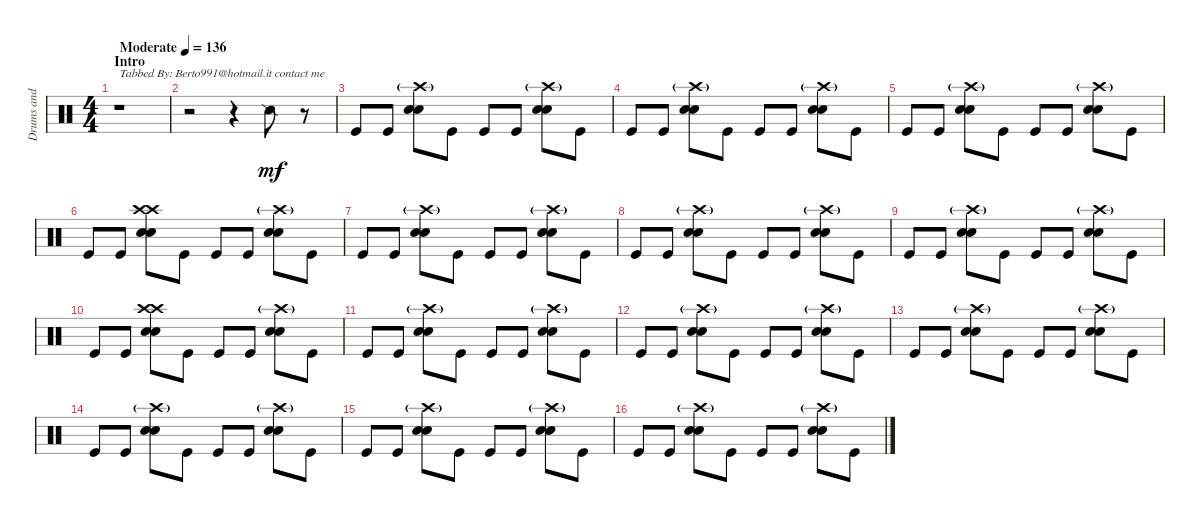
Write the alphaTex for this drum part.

\track ("Drums and Percussions" "Drums and ") {instrument percussion}
\staff {score}
\articulation defaults
\ts (4 4)
\section ("" "Intro")
\tempo (136 "Moderate")
\clef neutral
\ks c
r.1{txt "Tabbed By: Berto991@hotmail.it contact me" dy mf} |
r.2 r.4 "Snare (side stick) 2".8 r.8 |
"Kick (hit)".8 "Kick (hit)".8 ("Crash high (hit)"{g} "Electric Snare (hit)" "Electric Snare (hit)").8 "Kick (hit)".8 "Kick (hit)".8 "Kick (hit)".8 ("Crash high (hit)"{g} "Electric Snare (hit)" "Electric Snare (hit)").8 "Kick (hit)".8 |
"Kick (hit)".8 "Kick (hit)".8 ("Crash high (hit)"{g} "Electric Snare (hit)" "Electric Snare (hit)").8 "Kick (hit)".8 "Kick (hit)".8 "Kick (hit)".8 ("Crash high (hit)"{g} "Electric Snare (hit)" "Electric Snare (hit)").8 "Kick (hit)".8 |
"Kick (hit)".8 "Kick (hit)".8 ("Crash high (hit)"{g} "Electric Snare (hit)" "Electric Snare (hit)").8 "Kick (hit)".8 "Kick (hit)".8 "Kick (hit)".8 ("Crash high (hit)"{g} "Electric Snare (hit)" "Electric Snare (hit)").8 "Kick (hit)".8 |
"Kick (hit)".8 "Kick (hit)".8 ("Crash high (hit)" "Crash high (hit)" "Electric Snare (hit)" "Electric Snare (hit)").8 "Kick (hit)".8 "Kick (hit)".8 "Kick (hit)".8 ("Crash high (hit)"{g} "Electric Snare (hit)" "Electric Snare (hit)").8 "Kick (hit)".8 |
"Kick (hit)".8 "Kick (hit)".8 ("Crash high (hit)"{g} "Electric Snare (hit)" "Electric Snare (hit)").8 "Kick (hit)".8 "Kick (hit)".8 "Kick (hit)".8 ("Crash high (hit)"{g} "Electric Snare (hit)" "Electric Snare (hit)").8 "Kick (hit)".8 |
"Kick (hit)".8 "Kick (hit)".8 ("Crash high (hit)"{g} "Electric Snare (hit)" "Electric Snare (hit)").8 "Kick (hit)".8 "Kick (hit)".8 "Kick (hit)".8 ("Crash high (hit)"{g} "Electric Snare (hit)" "Electric Snare (hit)").8 "Kick (hit)".8 |
"Kick (hit)".8 "Kick (hit)".8 ("Crash high (hit)"{g} "Electric Snare (hit)" "Electric Snare (hit)").8 "Kick (hit)".8 "Kick (hit)".8 "Kick (hit)".8 ("Crash high (hit)"{g} "Electric Snare (hit)" "Electric Snare (hit)").8 "Kick (hit)".8 |
"Kick (hit)".8 "Kick (hit)".8 ("Crash high (hit)" "Crash high (hit)" "Electric Snare (hit)" "Electric Snare (hit)").8 "Kick (hit)".8 "Kick (hit)".8 "Kick (hit)".8 ("Crash high (hit)"{g} "Electric Snare (hit)" "Electric Snare (hit)").8 "Kick (hit)".8 |
"Kick (hit)".8 "Kick (hit)".8 ("Crash high (hit)"{g} "Electric Snare (hit)" "Electric Snare (hit)").8 "Kick (hit)".8 "Kick (hit)".8 "Kick (hit)".8 ("Crash high (hit)"{g} "Electric Snare (hit)" "Electric Snare (hit)").8 "Kick (hit)".8 |
"Kick (hit)".8 "Kick (hit)".8 ("Crash high (hit)"{g} "Electric Snare (hit)" "Electric Snare (hit)").8 "Kick (hit)".8 "Kick (hit)".8 "Kick (hit)".8 ("Crash high (hit)"{g} "Electric Snare (hit)" "Electric Snare (hit)").8 "Kick (hit)".8 |
"Kick (hit)".8 "Kick (hit)".8 ("Crash high (hit)"{g} "Electric Snare (hit)" "Electric Snare (hit)").8 "Kick (hit)".8 "Kick (hit)".8 "Kick (hit)".8 ("Crash high (hit)"{g} "Electric Snare (hit)" "Electric Snare (hit)").8 "Kick (hit)".8 |
"Kick (hit)".8 "Kick (hit)".8 ("Crash high (hit)"{g} "Electric Snare (hit)" "Electric Snare (hit)").8 "Kick (hit)".8 "Kick (hit)".8 "Kick (hit)".8 ("Crash high (hit)"{g} "Electric Snare (hit)" "Electric Snare (hit)").8 "Kick (hit)".8 |
"Kick (hit)".8 "Kick (hit)".8 ("Crash high (hit)"{g} "Electric Snare (hit)" "Electric Snare (hit)").8 "Kick (hit)".8 "Kick (hit)".8 "Kick (hit)".8 ("Crash high (hit)"{g} "Electric Snare (hit)" "Electric Snare (hit)").8 "Kick (hit)".8 |
"Kick (hit)".8 "Kick (hit)".8 ("Crash high (hit)"{g} "Electric Snare (hit)" "Electric Snare (hit)").8 "Kick (hit)".8 "Kick (hit)".8 "Kick (hit)".8 ("Crash high (hit)"{g} "Electric Snare (hit)" "Electric Snare (hit)").8 "Kick (hit)".8
